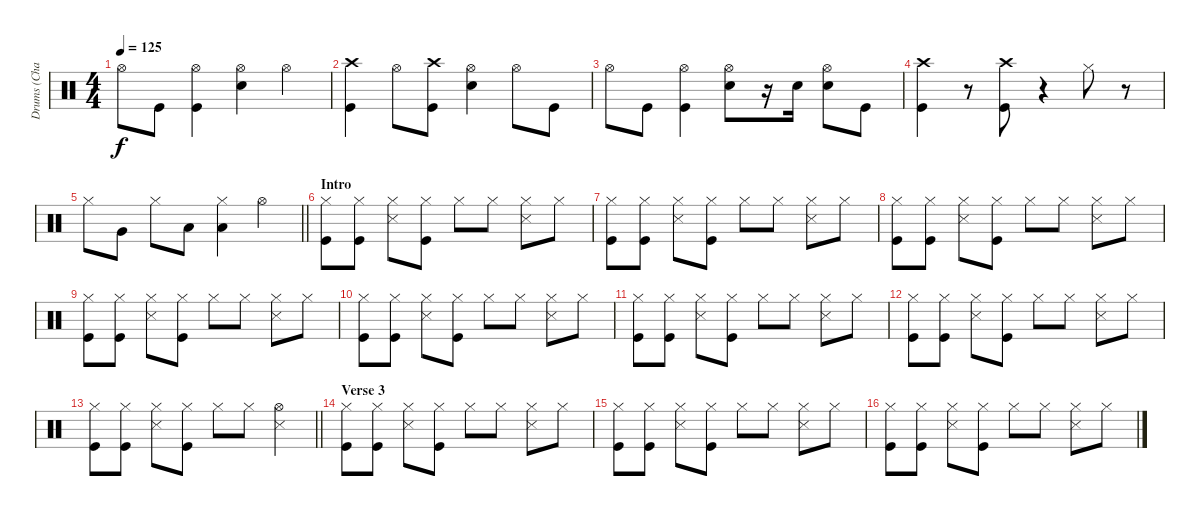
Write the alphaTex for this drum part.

\track ("Drums (Chad Smith)" "Drums (Cha") {instrument percussion}
\staff {score}
\articulation defaults
\ts (4 4)
\tempo 125
\clef neutral
\ks c "Hi-Hat (open)".8{dy f} "Kick (hit)".8
("Hi-Hat (open)" "Kick (hit)").4 ("Hi-Hat (open)" "Snare (hit) 2").4 "Hi-Hat (open)".4 |
("Crash high (hit)" "Kick (hit)").4 "Hi-Hat (open)".8 ("Crash high (hit)" "Kick (hit)").8 ("Hi-Hat (open)" "Snare (hit) 2").4 "Hi-Hat (open)".8 "Kick (hit)".8 |
"Hi-Hat (open)".8 "Kick (hit)".8 ("Hi-Hat (open)" "Kick (hit)").4 ("Hi-Hat (open)" "Snare (hit) 2").8 r.16 "Snare (hit) 2".16 ("Hi-Hat (open)" "Snare (hit) 2").8 "Kick (hit)".8 |
("Crash high (hit)" "Kick (hit)").4 r.8 ("Crash high (hit)" "Kick (hit)").8 r.4 "Hi-Hat (closed)".8 r.8 |
\barLineRight lightlight "Hi-Hat (closed)".8 "Very Low Tom (hit)".8 "Hi-Hat (closed)".8 "Low Floor Tom (hit)".8
("Hi-Hat (closed)" "Low Floor Tom (hit)").4 "Hi-Hat (open)".4 |
\section ("" "Intro")
("Hi-Hat (closed)" "Kick (hit)").8 ("Hi-Hat (closed)" "Kick (hit)").8 ("Hi-Hat (closed)" "Snare (side stick) 3").8 ("Hi-Hat (closed)" "Kick (hit)").8 "Hi-Hat (closed)".8 "Hi-Hat (closed)".8 ("Hi-Hat (closed)" "Snare (side stick) 3").8 "Hi-Hat (closed)".8 |
("Hi-Hat (closed)" "Kick (hit)").8 ("Hi-Hat (closed)" "Kick (hit)").8 ("Hi-Hat (closed)" "Snare (side stick) 3").8 ("Hi-Hat (closed)" "Kick (hit)").8 "Hi-Hat (closed)".8 "Hi-Hat (closed)".8 ("Hi-Hat (closed)" "Snare (side stick) 3").8 "Hi-Hat (closed)".8 |
("Hi-Hat (closed)" "Kick (hit)").8 ("Hi-Hat (closed)" "Kick (hit)").8 ("Hi-Hat (closed)" "Snare (side stick) 3").8 ("Hi-Hat (closed)" "Kick (hit)").8 "Hi-Hat (closed)".8 "Hi-Hat (closed)".8 ("Hi-Hat (closed)" "Snare (side stick) 3").8 "Hi-Hat (closed)".8 |
("Hi-Hat (closed)" "Kick (hit)").8 ("Hi-Hat (closed)" "Kick (hit)").8 ("Hi-Hat (closed)" "Snare (side stick) 3").8 ("Hi-Hat (closed)" "Kick (hit)").8 "Hi-Hat (closed)".8 "Hi-Hat (closed)".8 ("Hi-Hat (closed)" "Snare (side stick) 3").8 "Hi-Hat (closed)".8 |
("Hi-Hat (closed)" "Kick (hit)").8 ("Hi-Hat (closed)" "Kick (hit)").8 ("Hi-Hat (closed)" "Snare (side stick) 3").8 ("Hi-Hat (closed)" "Kick (hit)").8 "Hi-Hat (closed)".8 "Hi-Hat (closed)".8 ("Hi-Hat (closed)" "Snare (side stick) 3").8 "Hi-Hat (closed)".8 |
("Hi-Hat (closed)" "Kick (hit)").8 ("Hi-Hat (closed)" "Kick (hit)").8 ("Hi-Hat (closed)" "Snare (side stick) 3").8 ("Hi-Hat (closed)" "Kick (hit)").8 "Hi-Hat (closed)".8 "Hi-Hat (closed)".8 ("Hi-Hat (closed)" "Snare (side stick) 3").8 "Hi-Hat (closed)".8 |
("Hi-Hat (closed)" "Kick (hit)").8 ("Hi-Hat (closed)" "Kick (hit)").8 ("Hi-Hat (closed)" "Snare (side stick) 3").8 ("Hi-Hat (closed)" "Kick (hit)").8 "Hi-Hat (closed)".8 "Hi-Hat (closed)".8 ("Hi-Hat (closed)" "Snare (side stick) 3").8 "Hi-Hat (closed)".8 |
\barLineRight lightlight
("Hi-Hat (closed)" "Kick (hit)").8 ("Hi-Hat (closed)" "Kick (hit)").8 ("Hi-Hat (closed)" "Snare (side stick) 3").8 ("Hi-Hat (closed)" "Kick (hit)").8 "Hi-Hat (closed)".8 "Hi-Hat (closed)".8 ("Hi-Hat (open)" "Snare (side stick) 3").4 |
\section ("" "Verse 3")
("Hi-Hat (closed)" "Kick (hit)").8 ("Hi-Hat (closed)" "Kick (hit)").8 ("Hi-Hat (closed)" "Snare (side stick) 3").8 ("Hi-Hat (closed)" "Kick (hit)").8 "Hi-Hat (closed)".8 "Hi-Hat (closed)".8 ("Hi-Hat (closed)" "Snare (side stick) 3").8 "Hi-Hat (closed)".8 |
("Hi-Hat (closed)" "Kick (hit)").8 ("Hi-Hat (closed)" "Kick (hit)").8 ("Hi-Hat (closed)" "Snare (side stick) 3").8 ("Hi-Hat (closed)" "Kick (hit)").8 "Hi-Hat (closed)".8 "Hi-Hat (closed)".8 ("Hi-Hat (closed)" "Snare (side stick) 3").8 "Hi-Hat (closed)".8 |
("Hi-Hat (closed)" "Kick (hit)").8 ("Hi-Hat (closed)" "Kick (hit)").8 ("Hi-Hat (closed)" "Snare (side stick) 3").8 ("Hi-Hat (closed)" "Kick (hit)").8 "Hi-Hat (closed)".8 "Hi-Hat (closed)".8 ("Hi-Hat (closed)" "Snare (side stick) 3").8 "Hi-Hat (closed)".8
